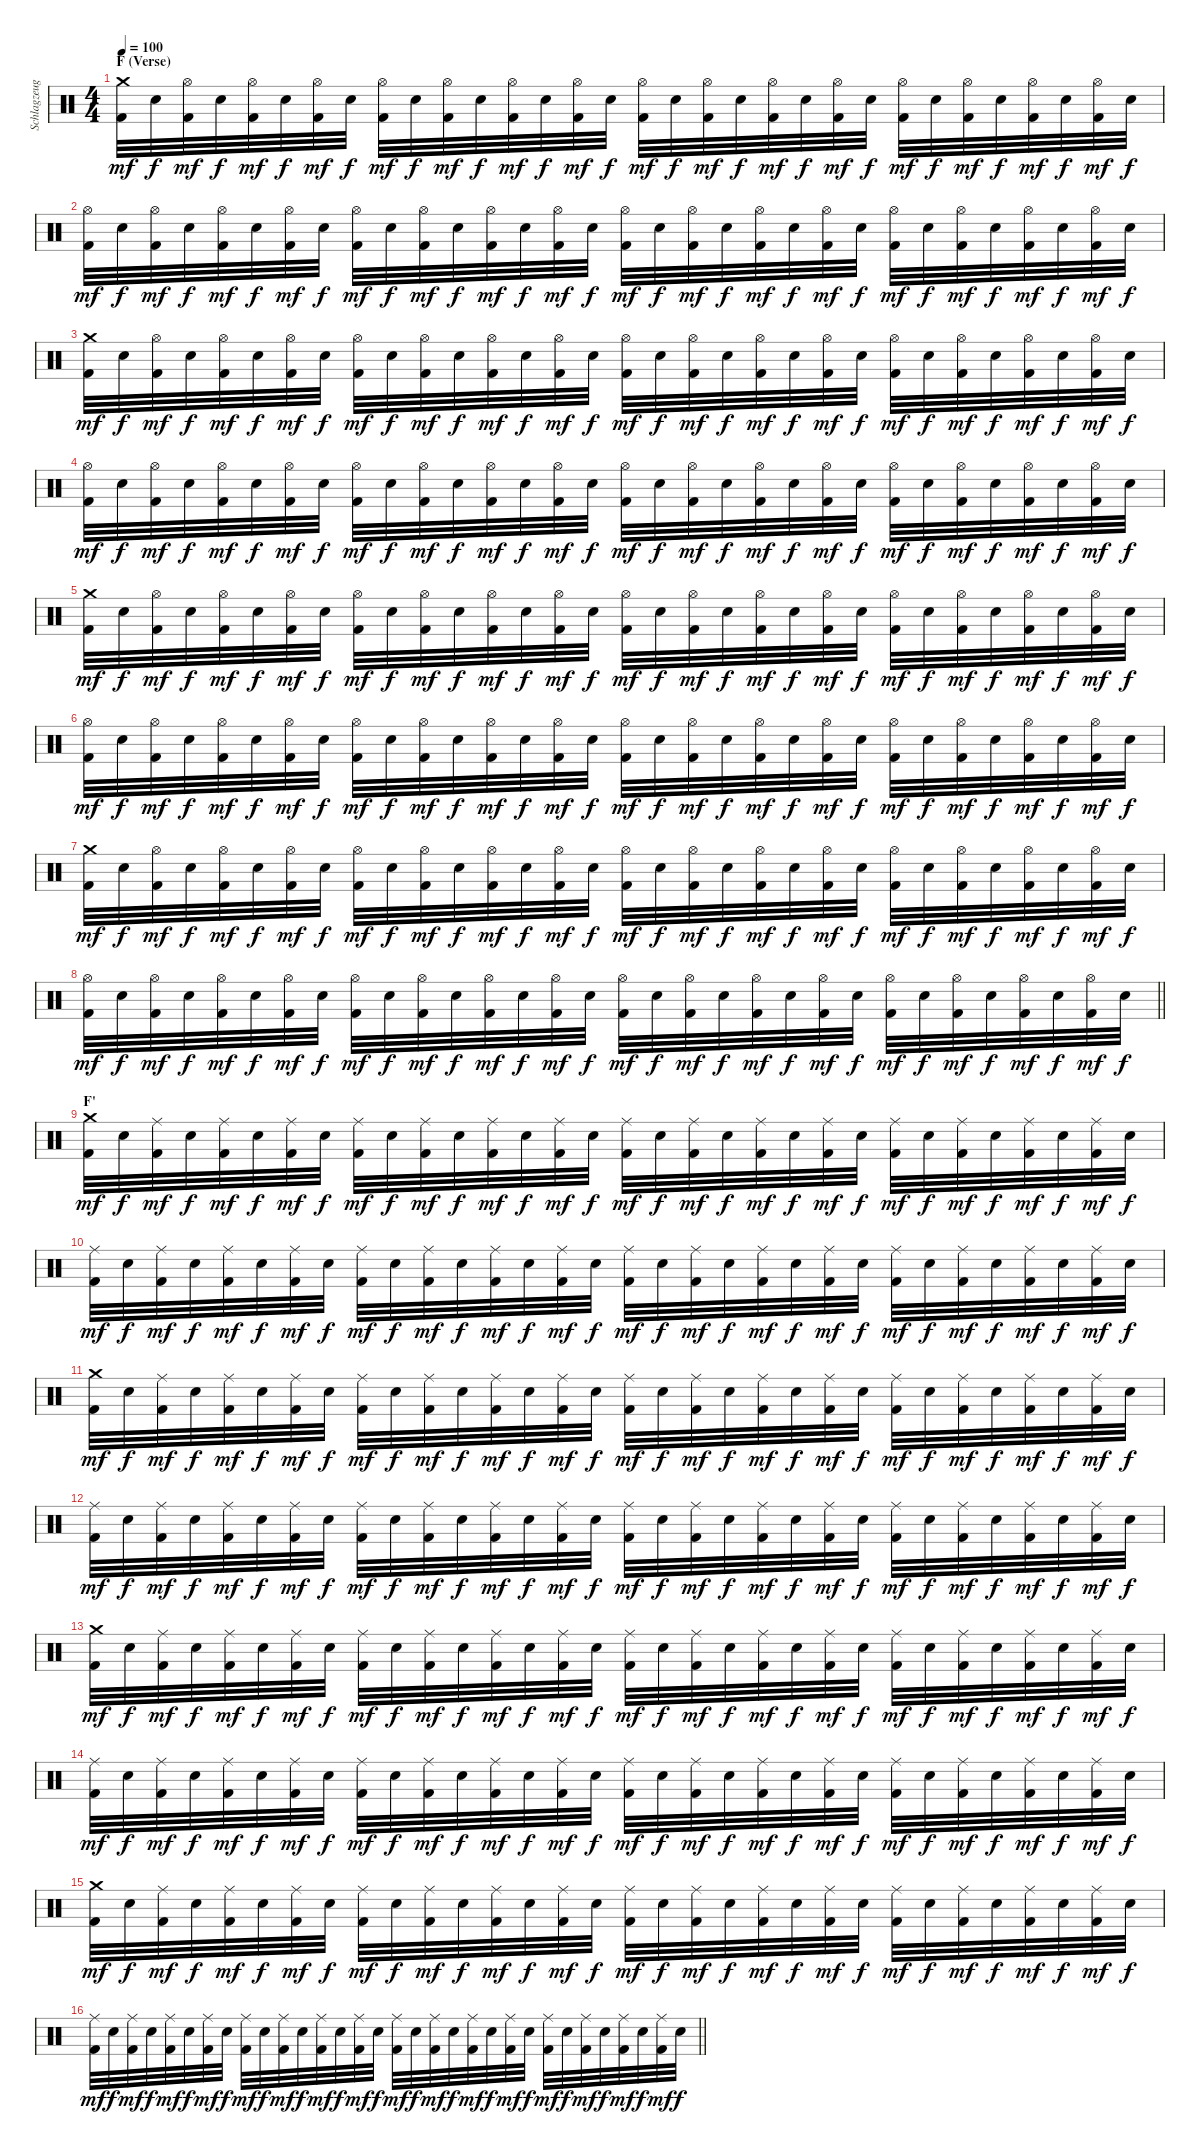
\track ("Schlagzeug" "Schlagzeug") {instrument percussion}
\staff {score}
\articulation defaults
\ts (4 4)
\section ("" "F (Verse)")
\tempo 100
\clef neutral
\ks c
("Crash medium (hit)" "Kick (hit) 2").32{dy mf} "Electric Snare (hit)".32{dy f} ("Hi-Hat (open)" "Kick (hit) 2").32{dy mf} "Electric Snare (hit)".32{dy f} ("Hi-Hat (open)" "Kick (hit) 2").32{dy mf} "Electric Snare (hit)".32{dy f} ("Hi-Hat (open)" "Kick (hit) 2").32{dy mf} "Electric Snare (hit)".32{dy f} ("Hi-Hat (open)" "Kick (hit) 2").32{dy mf} "Electric Snare (hit)".32{dy f} ("Hi-Hat (open)" "Kick (hit) 2").32{dy mf} "Electric Snare (hit)".32{dy f} ("Hi-Hat (open)" "Kick (hit) 2").32{dy mf} "Electric Snare (hit)".32{dy f} ("Hi-Hat (open)" "Kick (hit) 2").32{dy mf} "Electric Snare (hit)".32{dy f} ("Hi-Hat (open)" "Kick (hit) 2").32{dy mf} "Electric Snare (hit)".32{dy f} ("Hi-Hat (open)" "Kick (hit) 2").32{dy mf} "Electric Snare (hit)".32{dy f} ("Hi-Hat (open)" "Kick (hit) 2").32{dy mf} "Electric Snare (hit)".32{dy f} ("Hi-Hat (open)" "Kick (hit) 2").32{dy mf} "Electric Snare (hit)".32{dy f} ("Hi-Hat (open)" "Kick (hit) 2").32{dy mf} "Electric Snare (hit)".32{dy f} ("Hi-Hat (open)" "Kick (hit) 2").32{dy mf} "Electric Snare (hit)".32{dy f} ("Hi-Hat (open)" "Kick (hit) 2").32{dy mf} "Electric Snare (hit)".32{dy f} ("Hi-Hat (open)" "Kick (hit) 2").32{dy mf} "Electric Snare (hit)".32{dy f} |
("Hi-Hat (open)" "Kick (hit) 2").32{dy mf} "Electric Snare (hit)".32{dy f} ("Hi-Hat (open)" "Kick (hit) 2").32{dy mf} "Electric Snare (hit)".32{dy f} ("Hi-Hat (open)" "Kick (hit) 2").32{dy mf} "Electric Snare (hit)".32{dy f} ("Hi-Hat (open)" "Kick (hit) 2").32{dy mf} "Electric Snare (hit)".32{dy f} ("Hi-Hat (open)" "Kick (hit) 2").32{dy mf} "Electric Snare (hit)".32{dy f} ("Hi-Hat (open)" "Kick (hit) 2").32{dy mf} "Electric Snare (hit)".32{dy f} ("Hi-Hat (open)" "Kick (hit) 2").32{dy mf} "Electric Snare (hit)".32{dy f} ("Hi-Hat (open)" "Kick (hit) 2").32{dy mf} "Electric Snare (hit)".32{dy f} ("Hi-Hat (open)" "Kick (hit) 2").32{dy mf} "Electric Snare (hit)".32{dy f} ("Hi-Hat (open)" "Kick (hit) 2").32{dy mf} "Electric Snare (hit)".32{dy f} ("Hi-Hat (open)" "Kick (hit) 2").32{dy mf} "Electric Snare (hit)".32{dy f} ("Hi-Hat (open)" "Kick (hit) 2").32{dy mf} "Electric Snare (hit)".32{dy f} ("Hi-Hat (open)" "Kick (hit) 2").32{dy mf} "Electric Snare (hit)".32{dy f} ("Hi-Hat (open)" "Kick (hit) 2").32{dy mf} "Electric Snare (hit)".32{dy f} ("Hi-Hat (open)" "Kick (hit) 2").32{dy mf} "Electric Snare (hit)".32{dy f} ("Hi-Hat (open)" "Kick (hit) 2").32{dy mf} "Electric Snare (hit)".32{dy f} |
("Crash medium (hit)" "Kick (hit) 2").32{dy mf} "Electric Snare (hit)".32{dy f} ("Hi-Hat (open)" "Kick (hit) 2").32{dy mf} "Electric Snare (hit)".32{dy f} ("Hi-Hat (open)" "Kick (hit) 2").32{dy mf} "Electric Snare (hit)".32{dy f} ("Hi-Hat (open)" "Kick (hit) 2").32{dy mf} "Electric Snare (hit)".32{dy f} ("Hi-Hat (open)" "Kick (hit) 2").32{dy mf} "Electric Snare (hit)".32{dy f} ("Hi-Hat (open)" "Kick (hit) 2").32{dy mf} "Electric Snare (hit)".32{dy f} ("Hi-Hat (open)" "Kick (hit) 2").32{dy mf} "Electric Snare (hit)".32{dy f} ("Hi-Hat (open)" "Kick (hit) 2").32{dy mf} "Electric Snare (hit)".32{dy f} ("Hi-Hat (open)" "Kick (hit) 2").32{dy mf} "Electric Snare (hit)".32{dy f} ("Hi-Hat (open)" "Kick (hit) 2").32{dy mf} "Electric Snare (hit)".32{dy f} ("Hi-Hat (open)" "Kick (hit) 2").32{dy mf} "Electric Snare (hit)".32{dy f} ("Hi-Hat (open)" "Kick (hit) 2").32{dy mf} "Electric Snare (hit)".32{dy f} ("Hi-Hat (open)" "Kick (hit) 2").32{dy mf} "Electric Snare (hit)".32{dy f} ("Hi-Hat (open)" "Kick (hit) 2").32{dy mf} "Electric Snare (hit)".32{dy f} ("Hi-Hat (open)" "Kick (hit) 2").32{dy mf} "Electric Snare (hit)".32{dy f} ("Hi-Hat (open)" "Kick (hit) 2").32{dy mf} "Electric Snare (hit)".32{dy f} |
("Hi-Hat (open)" "Kick (hit) 2").32{dy mf} "Electric Snare (hit)".32{dy f} ("Hi-Hat (open)" "Kick (hit) 2").32{dy mf} "Electric Snare (hit)".32{dy f} ("Hi-Hat (open)" "Kick (hit) 2").32{dy mf} "Electric Snare (hit)".32{dy f} ("Hi-Hat (open)" "Kick (hit) 2").32{dy mf} "Electric Snare (hit)".32{dy f} ("Hi-Hat (open)" "Kick (hit) 2").32{dy mf} "Electric Snare (hit)".32{dy f} ("Hi-Hat (open)" "Kick (hit) 2").32{dy mf} "Electric Snare (hit)".32{dy f} ("Hi-Hat (open)" "Kick (hit) 2").32{dy mf} "Electric Snare (hit)".32{dy f} ("Hi-Hat (open)" "Kick (hit) 2").32{dy mf} "Electric Snare (hit)".32{dy f} ("Hi-Hat (open)" "Kick (hit) 2").32{dy mf} "Electric Snare (hit)".32{dy f} ("Hi-Hat (open)" "Kick (hit) 2").32{dy mf} "Electric Snare (hit)".32{dy f} ("Hi-Hat (open)" "Kick (hit) 2").32{dy mf} "Electric Snare (hit)".32{dy f} ("Hi-Hat (open)" "Kick (hit) 2").32{dy mf} "Electric Snare (hit)".32{dy f} ("Hi-Hat (open)" "Kick (hit) 2").32{dy mf} "Electric Snare (hit)".32{dy f} ("Hi-Hat (open)" "Kick (hit) 2").32{dy mf} "Electric Snare (hit)".32{dy f} ("Hi-Hat (open)" "Kick (hit) 2").32{dy mf} "Electric Snare (hit)".32{dy f} ("Hi-Hat (open)" "Kick (hit) 2").32{dy mf} "Electric Snare (hit)".32{dy f} |
("Crash medium (hit)" "Kick (hit) 2").32{dy mf} "Electric Snare (hit)".32{dy f} ("Hi-Hat (open)" "Kick (hit) 2").32{dy mf} "Electric Snare (hit)".32{dy f} ("Hi-Hat (open)" "Kick (hit) 2").32{dy mf} "Electric Snare (hit)".32{dy f} ("Hi-Hat (open)" "Kick (hit) 2").32{dy mf} "Electric Snare (hit)".32{dy f} ("Hi-Hat (open)" "Kick (hit) 2").32{dy mf} "Electric Snare (hit)".32{dy f} ("Hi-Hat (open)" "Kick (hit) 2").32{dy mf} "Electric Snare (hit)".32{dy f} ("Hi-Hat (open)" "Kick (hit) 2").32{dy mf} "Electric Snare (hit)".32{dy f} ("Hi-Hat (open)" "Kick (hit) 2").32{dy mf} "Electric Snare (hit)".32{dy f} ("Hi-Hat (open)" "Kick (hit) 2").32{dy mf} "Electric Snare (hit)".32{dy f} ("Hi-Hat (open)" "Kick (hit) 2").32{dy mf} "Electric Snare (hit)".32{dy f} ("Hi-Hat (open)" "Kick (hit) 2").32{dy mf} "Electric Snare (hit)".32{dy f} ("Hi-Hat (open)" "Kick (hit) 2").32{dy mf} "Electric Snare (hit)".32{dy f} ("Hi-Hat (open)" "Kick (hit) 2").32{dy mf} "Electric Snare (hit)".32{dy f} ("Hi-Hat (open)" "Kick (hit) 2").32{dy mf} "Electric Snare (hit)".32{dy f} ("Hi-Hat (open)" "Kick (hit) 2").32{dy mf} "Electric Snare (hit)".32{dy f} ("Hi-Hat (open)" "Kick (hit) 2").32{dy mf} "Electric Snare (hit)".32{dy f} |
("Hi-Hat (open)" "Kick (hit) 2").32{dy mf} "Electric Snare (hit)".32{dy f} ("Hi-Hat (open)" "Kick (hit) 2").32{dy mf} "Electric Snare (hit)".32{dy f} ("Hi-Hat (open)" "Kick (hit) 2").32{dy mf} "Electric Snare (hit)".32{dy f} ("Hi-Hat (open)" "Kick (hit) 2").32{dy mf} "Electric Snare (hit)".32{dy f} ("Hi-Hat (open)" "Kick (hit) 2").32{dy mf} "Electric Snare (hit)".32{dy f} ("Hi-Hat (open)" "Kick (hit) 2").32{dy mf} "Electric Snare (hit)".32{dy f} ("Hi-Hat (open)" "Kick (hit) 2").32{dy mf} "Electric Snare (hit)".32{dy f} ("Hi-Hat (open)" "Kick (hit) 2").32{dy mf} "Electric Snare (hit)".32{dy f} ("Hi-Hat (open)" "Kick (hit) 2").32{dy mf} "Electric Snare (hit)".32{dy f} ("Hi-Hat (open)" "Kick (hit) 2").32{dy mf} "Electric Snare (hit)".32{dy f} ("Hi-Hat (open)" "Kick (hit) 2").32{dy mf} "Electric Snare (hit)".32{dy f} ("Hi-Hat (open)" "Kick (hit) 2").32{dy mf} "Electric Snare (hit)".32{dy f} ("Hi-Hat (open)" "Kick (hit) 2").32{dy mf} "Electric Snare (hit)".32{dy f} ("Hi-Hat (open)" "Kick (hit) 2").32{dy mf} "Electric Snare (hit)".32{dy f} ("Hi-Hat (open)" "Kick (hit) 2").32{dy mf} "Electric Snare (hit)".32{dy f} ("Hi-Hat (open)" "Kick (hit) 2").32{dy mf} "Electric Snare (hit)".32{dy f} |
("Crash medium (hit)" "Kick (hit) 2").32{dy mf} "Electric Snare (hit)".32{dy f} ("Hi-Hat (open)" "Kick (hit) 2").32{dy mf} "Electric Snare (hit)".32{dy f} ("Hi-Hat (open)" "Kick (hit) 2").32{dy mf} "Electric Snare (hit)".32{dy f} ("Hi-Hat (open)" "Kick (hit) 2").32{dy mf} "Electric Snare (hit)".32{dy f} ("Hi-Hat (open)" "Kick (hit) 2").32{dy mf} "Electric Snare (hit)".32{dy f} ("Hi-Hat (open)" "Kick (hit) 2").32{dy mf} "Electric Snare (hit)".32{dy f} ("Hi-Hat (open)" "Kick (hit) 2").32{dy mf} "Electric Snare (hit)".32{dy f} ("Hi-Hat (open)" "Kick (hit) 2").32{dy mf} "Electric Snare (hit)".32{dy f} ("Hi-Hat (open)" "Kick (hit) 2").32{dy mf} "Electric Snare (hit)".32{dy f} ("Hi-Hat (open)" "Kick (hit) 2").32{dy mf} "Electric Snare (hit)".32{dy f} ("Hi-Hat (open)" "Kick (hit) 2").32{dy mf} "Electric Snare (hit)".32{dy f} ("Hi-Hat (open)" "Kick (hit) 2").32{dy mf} "Electric Snare (hit)".32{dy f} ("Hi-Hat (open)" "Kick (hit) 2").32{dy mf} "Electric Snare (hit)".32{dy f} ("Hi-Hat (open)" "Kick (hit) 2").32{dy mf} "Electric Snare (hit)".32{dy f} ("Hi-Hat (open)" "Kick (hit) 2").32{dy mf} "Electric Snare (hit)".32{dy f} ("Hi-Hat (open)" "Kick (hit) 2").32{dy mf} "Electric Snare (hit)".32{dy f} |
\barLineRight lightlight
("Hi-Hat (open)" "Kick (hit) 2").32{dy mf} "Electric Snare (hit)".32{dy f} ("Hi-Hat (open)" "Kick (hit) 2").32{dy mf} "Electric Snare (hit)".32{dy f} ("Hi-Hat (open)" "Kick (hit) 2").32{dy mf} "Electric Snare (hit)".32{dy f} ("Hi-Hat (open)" "Kick (hit) 2").32{dy mf} "Electric Snare (hit)".32{dy f} ("Hi-Hat (open)" "Kick (hit) 2").32{dy mf} "Electric Snare (hit)".32{dy f} ("Hi-Hat (open)" "Kick (hit) 2").32{dy mf} "Electric Snare (hit)".32{dy f} ("Hi-Hat (open)" "Kick (hit) 2").32{dy mf} "Electric Snare (hit)".32{dy f} ("Hi-Hat (open)" "Kick (hit) 2").32{dy mf} "Electric Snare (hit)".32{dy f} ("Hi-Hat (open)" "Kick (hit) 2").32{dy mf} "Electric Snare (hit)".32{dy f} ("Hi-Hat (open)" "Kick (hit) 2").32{dy mf} "Electric Snare (hit)".32{dy f} ("Hi-Hat (open)" "Kick (hit) 2").32{dy mf} "Electric Snare (hit)".32{dy f} ("Hi-Hat (open)" "Kick (hit) 2").32{dy mf} "Electric Snare (hit)".32{dy f} ("Hi-Hat (open)" "Kick (hit) 2").32{dy mf} "Electric Snare (hit)".32{dy f} ("Hi-Hat (open)" "Kick (hit) 2").32{dy mf} "Electric Snare (hit)".32{dy f} ("Hi-Hat (open)" "Kick (hit) 2").32{dy mf} "Electric Snare (hit)".32{dy f} ("Hi-Hat (open)" "Kick (hit) 2").32{dy mf} "Electric Snare (hit)".32{dy f} |
\section ("" "F'")
("Crash medium (hit)" "Kick (hit) 2").32{dy mf} "Electric Snare (hit)".32{dy f} ("Ride (middle)" "Kick (hit) 2").32{dy mf} "Electric Snare (hit)".32{dy f} ("Ride (middle)" "Kick (hit) 2").32{dy mf} "Electric Snare (hit)".32{dy f} ("Ride (middle)" "Kick (hit) 2").32{dy mf} "Electric Snare (hit)".32{dy f} ("Ride (middle)" "Kick (hit) 2").32{dy mf} "Electric Snare (hit)".32{dy f} ("Ride (middle)" "Kick (hit) 2").32{dy mf} "Electric Snare (hit)".32{dy f} ("Ride (middle)" "Kick (hit) 2").32{dy mf} "Electric Snare (hit)".32{dy f} ("Ride (middle)" "Kick (hit) 2").32{dy mf} "Electric Snare (hit)".32{dy f} ("Ride (middle)" "Kick (hit) 2").32{dy mf} "Electric Snare (hit)".32{dy f} ("Ride (middle)" "Kick (hit) 2").32{dy mf} "Electric Snare (hit)".32{dy f} ("Ride (middle)" "Kick (hit) 2").32{dy mf} "Electric Snare (hit)".32{dy f} ("Ride (middle)" "Kick (hit) 2").32{dy mf} "Electric Snare (hit)".32{dy f} ("Ride (middle)" "Kick (hit) 2").32{dy mf} "Electric Snare (hit)".32{dy f} ("Ride (middle)" "Kick (hit) 2").32{dy mf} "Electric Snare (hit)".32{dy f} ("Ride (middle)" "Kick (hit) 2").32{dy mf} "Electric Snare (hit)".32{dy f} ("Ride (middle)" "Kick (hit) 2").32{dy mf} "Electric Snare (hit)".32{dy f} |
("Ride (middle)" "Kick (hit) 2").32{dy mf} "Electric Snare (hit)".32{dy f} ("Ride (middle)" "Kick (hit) 2").32{dy mf} "Electric Snare (hit)".32{dy f} ("Ride (middle)" "Kick (hit) 2").32{dy mf} "Electric Snare (hit)".32{dy f} ("Ride (middle)" "Kick (hit) 2").32{dy mf} "Electric Snare (hit)".32{dy f} ("Ride (middle)" "Kick (hit) 2").32{dy mf} "Electric Snare (hit)".32{dy f} ("Ride (middle)" "Kick (hit) 2").32{dy mf} "Electric Snare (hit)".32{dy f} ("Ride (middle)" "Kick (hit) 2").32{dy mf} "Electric Snare (hit)".32{dy f} ("Ride (middle)" "Kick (hit) 2").32{dy mf} "Electric Snare (hit)".32{dy f} ("Ride (middle)" "Kick (hit) 2").32{dy mf} "Electric Snare (hit)".32{dy f} ("Ride (middle)" "Kick (hit) 2").32{dy mf} "Electric Snare (hit)".32{dy f} ("Ride (middle)" "Kick (hit) 2").32{dy mf} "Electric Snare (hit)".32{dy f} ("Ride (middle)" "Kick (hit) 2").32{dy mf} "Electric Snare (hit)".32{dy f} ("Ride (middle)" "Kick (hit) 2").32{dy mf} "Electric Snare (hit)".32{dy f} ("Ride (middle)" "Kick (hit) 2").32{dy mf} "Electric Snare (hit)".32{dy f} ("Ride (middle)" "Kick (hit) 2").32{dy mf} "Electric Snare (hit)".32{dy f} ("Ride (middle)" "Kick (hit) 2").32{dy mf} "Electric Snare (hit)".32{dy f} |
("Crash medium (hit)" "Kick (hit) 2").32{dy mf} "Electric Snare (hit)".32{dy f} ("Ride (middle)" "Kick (hit) 2").32{dy mf} "Electric Snare (hit)".32{dy f} ("Ride (middle)" "Kick (hit) 2").32{dy mf} "Electric Snare (hit)".32{dy f} ("Ride (middle)" "Kick (hit) 2").32{dy mf} "Electric Snare (hit)".32{dy f} ("Ride (middle)" "Kick (hit) 2").32{dy mf} "Electric Snare (hit)".32{dy f} ("Ride (middle)" "Kick (hit) 2").32{dy mf} "Electric Snare (hit)".32{dy f} ("Ride (middle)" "Kick (hit) 2").32{dy mf} "Electric Snare (hit)".32{dy f} ("Ride (middle)" "Kick (hit) 2").32{dy mf} "Electric Snare (hit)".32{dy f} ("Ride (middle)" "Kick (hit) 2").32{dy mf} "Electric Snare (hit)".32{dy f} ("Ride (middle)" "Kick (hit) 2").32{dy mf} "Electric Snare (hit)".32{dy f} ("Ride (middle)" "Kick (hit) 2").32{dy mf} "Electric Snare (hit)".32{dy f} ("Ride (middle)" "Kick (hit) 2").32{dy mf} "Electric Snare (hit)".32{dy f} ("Ride (middle)" "Kick (hit) 2").32{dy mf} "Electric Snare (hit)".32{dy f} ("Ride (middle)" "Kick (hit) 2").32{dy mf} "Electric Snare (hit)".32{dy f} ("Ride (middle)" "Kick (hit) 2").32{dy mf} "Electric Snare (hit)".32{dy f} ("Ride (middle)" "Kick (hit) 2").32{dy mf} "Electric Snare (hit)".32{dy f} |
("Ride (middle)" "Kick (hit) 2").32{dy mf} "Electric Snare (hit)".32{dy f} ("Ride (middle)" "Kick (hit) 2").32{dy mf} "Electric Snare (hit)".32{dy f} ("Ride (middle)" "Kick (hit) 2").32{dy mf} "Electric Snare (hit)".32{dy f} ("Ride (middle)" "Kick (hit) 2").32{dy mf} "Electric Snare (hit)".32{dy f} ("Ride (middle)" "Kick (hit) 2").32{dy mf} "Electric Snare (hit)".32{dy f} ("Ride (middle)" "Kick (hit) 2").32{dy mf} "Electric Snare (hit)".32{dy f} ("Ride (middle)" "Kick (hit) 2").32{dy mf} "Electric Snare (hit)".32{dy f} ("Ride (middle)" "Kick (hit) 2").32{dy mf} "Electric Snare (hit)".32{dy f} ("Ride (middle)" "Kick (hit) 2").32{dy mf} "Electric Snare (hit)".32{dy f} ("Ride (middle)" "Kick (hit) 2").32{dy mf} "Electric Snare (hit)".32{dy f} ("Ride (middle)" "Kick (hit) 2").32{dy mf} "Electric Snare (hit)".32{dy f} ("Ride (middle)" "Kick (hit) 2").32{dy mf} "Electric Snare (hit)".32{dy f} ("Ride (middle)" "Kick (hit) 2").32{dy mf} "Electric Snare (hit)".32{dy f} ("Ride (middle)" "Kick (hit) 2").32{dy mf} "Electric Snare (hit)".32{dy f} ("Ride (middle)" "Kick (hit) 2").32{dy mf} "Electric Snare (hit)".32{dy f} ("Ride (middle)" "Kick (hit) 2").32{dy mf} "Electric Snare (hit)".32{dy f} |
("Crash medium (hit)" "Kick (hit) 2").32{dy mf} "Electric Snare (hit)".32{dy f} ("Ride (middle)" "Kick (hit) 2").32{dy mf} "Electric Snare (hit)".32{dy f} ("Ride (middle)" "Kick (hit) 2").32{dy mf} "Electric Snare (hit)".32{dy f} ("Ride (middle)" "Kick (hit) 2").32{dy mf} "Electric Snare (hit)".32{dy f} ("Ride (middle)" "Kick (hit) 2").32{dy mf} "Electric Snare (hit)".32{dy f} ("Ride (middle)" "Kick (hit) 2").32{dy mf} "Electric Snare (hit)".32{dy f} ("Ride (middle)" "Kick (hit) 2").32{dy mf} "Electric Snare (hit)".32{dy f} ("Ride (middle)" "Kick (hit) 2").32{dy mf} "Electric Snare (hit)".32{dy f} ("Ride (middle)" "Kick (hit) 2").32{dy mf} "Electric Snare (hit)".32{dy f} ("Ride (middle)" "Kick (hit) 2").32{dy mf} "Electric Snare (hit)".32{dy f} ("Ride (middle)" "Kick (hit) 2").32{dy mf} "Electric Snare (hit)".32{dy f} ("Ride (middle)" "Kick (hit) 2").32{dy mf} "Electric Snare (hit)".32{dy f} ("Ride (middle)" "Kick (hit) 2").32{dy mf} "Electric Snare (hit)".32{dy f} ("Ride (middle)" "Kick (hit) 2").32{dy mf} "Electric Snare (hit)".32{dy f} ("Ride (middle)" "Kick (hit) 2").32{dy mf} "Electric Snare (hit)".32{dy f} ("Ride (middle)" "Kick (hit) 2").32{dy mf} "Electric Snare (hit)".32{dy f} |
("Ride (middle)" "Kick (hit) 2").32{dy mf} "Electric Snare (hit)".32{dy f} ("Ride (middle)" "Kick (hit) 2").32{dy mf} "Electric Snare (hit)".32{dy f} ("Ride (middle)" "Kick (hit) 2").32{dy mf} "Electric Snare (hit)".32{dy f} ("Ride (middle)" "Kick (hit) 2").32{dy mf} "Electric Snare (hit)".32{dy f} ("Ride (middle)" "Kick (hit) 2").32{dy mf} "Electric Snare (hit)".32{dy f} ("Ride (middle)" "Kick (hit) 2").32{dy mf} "Electric Snare (hit)".32{dy f} ("Ride (middle)" "Kick (hit) 2").32{dy mf} "Electric Snare (hit)".32{dy f} ("Ride (middle)" "Kick (hit) 2").32{dy mf} "Electric Snare (hit)".32{dy f} ("Ride (middle)" "Kick (hit) 2").32{dy mf} "Electric Snare (hit)".32{dy f} ("Ride (middle)" "Kick (hit) 2").32{dy mf} "Electric Snare (hit)".32{dy f} ("Ride (middle)" "Kick (hit) 2").32{dy mf} "Electric Snare (hit)".32{dy f} ("Ride (middle)" "Kick (hit) 2").32{dy mf} "Electric Snare (hit)".32{dy f} ("Ride (middle)" "Kick (hit) 2").32{dy mf} "Electric Snare (hit)".32{dy f} ("Ride (middle)" "Kick (hit) 2").32{dy mf} "Electric Snare (hit)".32{dy f} ("Ride (middle)" "Kick (hit) 2").32{dy mf} "Electric Snare (hit)".32{dy f} ("Ride (middle)" "Kick (hit) 2").32{dy mf} "Electric Snare (hit)".32{dy f} |
("Crash medium (hit)" "Kick (hit) 2").32{dy mf} "Electric Snare (hit)".32{dy f} ("Ride (middle)" "Kick (hit) 2").32{dy mf} "Electric Snare (hit)".32{dy f} ("Ride (middle)" "Kick (hit) 2").32{dy mf} "Electric Snare (hit)".32{dy f} ("Ride (middle)" "Kick (hit) 2").32{dy mf} "Electric Snare (hit)".32{dy f} ("Ride (middle)" "Kick (hit) 2").32{dy mf} "Electric Snare (hit)".32{dy f} ("Ride (middle)" "Kick (hit) 2").32{dy mf} "Electric Snare (hit)".32{dy f} ("Ride (middle)" "Kick (hit) 2").32{dy mf} "Electric Snare (hit)".32{dy f} ("Ride (middle)" "Kick (hit) 2").32{dy mf} "Electric Snare (hit)".32{dy f} ("Ride (middle)" "Kick (hit) 2").32{dy mf} "Electric Snare (hit)".32{dy f} ("Ride (middle)" "Kick (hit) 2").32{dy mf} "Electric Snare (hit)".32{dy f} ("Ride (middle)" "Kick (hit) 2").32{dy mf} "Electric Snare (hit)".32{dy f} ("Ride (middle)" "Kick (hit) 2").32{dy mf} "Electric Snare (hit)".32{dy f} ("Ride (middle)" "Kick (hit) 2").32{dy mf} "Electric Snare (hit)".32{dy f} ("Ride (middle)" "Kick (hit) 2").32{dy mf} "Electric Snare (hit)".32{dy f} ("Ride (middle)" "Kick (hit) 2").32{dy mf} "Electric Snare (hit)".32{dy f} ("Ride (middle)" "Kick (hit) 2").32{dy mf} "Electric Snare (hit)".32{dy f} |
\barLineRight lightlight
("Ride (middle)" "Kick (hit) 2").32{dy mf} "Electric Snare (hit)".32{dy f} ("Ride (middle)" "Kick (hit) 2").32{dy mf} "Electric Snare (hit)".32{dy f} ("Ride (middle)" "Kick (hit) 2").32{dy mf} "Electric Snare (hit)".32{dy f} ("Ride (middle)" "Kick (hit) 2").32{dy mf} "Electric Snare (hit)".32{dy f} ("Ride (middle)" "Kick (hit) 2").32{dy mf} "Electric Snare (hit)".32{dy f} ("Ride (middle)" "Kick (hit) 2").32{dy mf} "Electric Snare (hit)".32{dy f} ("Ride (middle)" "Kick (hit) 2").32{dy mf} "Electric Snare (hit)".32{dy f} ("Ride (middle)" "Kick (hit) 2").32{dy mf} "Electric Snare (hit)".32{dy f} ("Ride (middle)" "Kick (hit) 2").32{dy mf} "Electric Snare (hit)".32{dy f} ("Ride (middle)" "Kick (hit) 2").32{dy mf} "Electric Snare (hit)".32{dy f} ("Ride (middle)" "Kick (hit) 2").32{dy mf} "Electric Snare (hit)".32{dy f} ("Ride (middle)" "Kick (hit) 2").32{dy mf} "Electric Snare (hit)".32{dy f} ("Ride (middle)" "Kick (hit) 2").32{dy mf} "Electric Snare (hit)".32{dy f} ("Ride (middle)" "Kick (hit) 2").32{dy mf} "Electric Snare (hit)".32{dy f} ("Ride (middle)" "Kick (hit) 2").32{dy mf} "Electric Snare (hit)".32{dy f} ("Ride (middle)" "Kick (hit) 2").32{dy mf} "Electric Snare (hit)".32{dy f}
